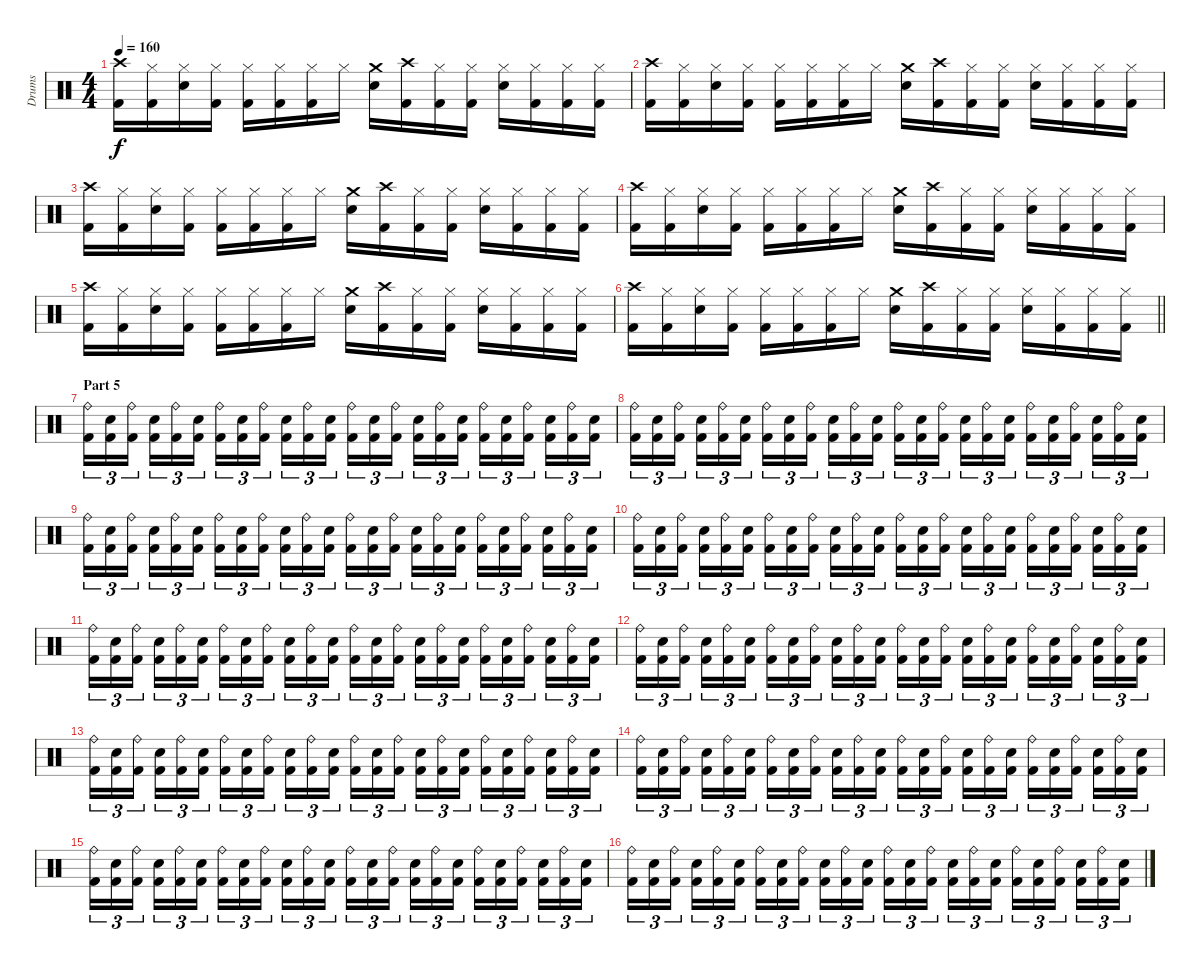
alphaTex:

\track ("Drums" "Drums") {instrument percussion}
\staff {score}
\articulation defaults
\ts (4 4)
\tempo 160
\clef neutral
\ks c
("Crash high (hit)" "Kick (hit) 2").16{dy f} ("Hi-Hat (closed)" "Kick (hit) 2").16 ("Hi-Hat (closed)" "Electric Snare (hit)").16 ("Hi-Hat (closed)" "Kick (hit) 2").16 ("Hi-Hat (closed)" "Kick (hit) 2").16 ("Hi-Hat (closed)" "Kick (hit) 2").16 ("Hi-Hat (closed)" "Kick (hit) 2").16 "Hi-Hat (closed)".16 ("Crash medium (hit)" "Electric Snare (hit)").16 ("Crash high (hit)" "Kick (hit) 2").16 ("Hi-Hat (closed)" "Kick (hit) 2").16 ("Hi-Hat (closed)" "Kick (hit) 2").16 ("Hi-Hat (closed)" "Electric Snare (hit)").16 ("Hi-Hat (closed)" "Kick (hit) 2").16 ("Hi-Hat (closed)" "Kick (hit) 2").16 ("Hi-Hat (closed)" "Kick (hit) 2").16 |
("Crash high (hit)" "Kick (hit) 2").16 ("Hi-Hat (closed)" "Kick (hit) 2").16 ("Hi-Hat (closed)" "Electric Snare (hit)").16 ("Hi-Hat (closed)" "Kick (hit) 2").16 ("Hi-Hat (closed)" "Kick (hit) 2").16 ("Hi-Hat (closed)" "Kick (hit) 2").16 ("Hi-Hat (closed)" "Kick (hit) 2").16 "Hi-Hat (closed)".16 ("Crash medium (hit)" "Electric Snare (hit)").16 ("Crash high (hit)" "Kick (hit) 2").16 ("Hi-Hat (closed)" "Kick (hit) 2").16 ("Hi-Hat (closed)" "Kick (hit) 2").16 ("Hi-Hat (closed)" "Electric Snare (hit)").16 ("Hi-Hat (closed)" "Kick (hit) 2").16 ("Hi-Hat (closed)" "Kick (hit) 2").16 ("Hi-Hat (closed)" "Kick (hit) 2").16 |
("Crash high (hit)" "Kick (hit) 2").16 ("Hi-Hat (closed)" "Kick (hit) 2").16 ("Hi-Hat (closed)" "Electric Snare (hit)").16 ("Hi-Hat (closed)" "Kick (hit) 2").16 ("Hi-Hat (closed)" "Kick (hit) 2").16 ("Hi-Hat (closed)" "Kick (hit) 2").16 ("Hi-Hat (closed)" "Kick (hit) 2").16 "Hi-Hat (closed)".16 ("Crash medium (hit)" "Electric Snare (hit)").16 ("Crash high (hit)" "Kick (hit) 2").16 ("Hi-Hat (closed)" "Kick (hit) 2").16 ("Hi-Hat (closed)" "Kick (hit) 2").16 ("Hi-Hat (closed)" "Electric Snare (hit)").16 ("Hi-Hat (closed)" "Kick (hit) 2").16 ("Hi-Hat (closed)" "Kick (hit) 2").16 ("Hi-Hat (closed)" "Kick (hit) 2").16 |
("Crash high (hit)" "Kick (hit) 2").16 ("Hi-Hat (closed)" "Kick (hit) 2").16 ("Hi-Hat (closed)" "Electric Snare (hit)").16 ("Hi-Hat (closed)" "Kick (hit) 2").16 ("Hi-Hat (closed)" "Kick (hit) 2").16 ("Hi-Hat (closed)" "Kick (hit) 2").16 ("Hi-Hat (closed)" "Kick (hit) 2").16 "Hi-Hat (closed)".16 ("Crash medium (hit)" "Electric Snare (hit)").16 ("Crash high (hit)" "Kick (hit) 2").16 ("Hi-Hat (closed)" "Kick (hit) 2").16 ("Hi-Hat (closed)" "Kick (hit) 2").16 ("Hi-Hat (closed)" "Electric Snare (hit)").16 ("Hi-Hat (closed)" "Kick (hit) 2").16 ("Hi-Hat (closed)" "Kick (hit) 2").16 ("Hi-Hat (closed)" "Kick (hit) 2").16 |
("Crash high (hit)" "Kick (hit) 2").16 ("Hi-Hat (closed)" "Kick (hit) 2").16 ("Hi-Hat (closed)" "Electric Snare (hit)").16 ("Hi-Hat (closed)" "Kick (hit) 2").16 ("Hi-Hat (closed)" "Kick (hit) 2").16 ("Hi-Hat (closed)" "Kick (hit) 2").16 ("Hi-Hat (closed)" "Kick (hit) 2").16 "Hi-Hat (closed)".16 ("Crash medium (hit)" "Electric Snare (hit)").16 ("Crash high (hit)" "Kick (hit) 2").16 ("Hi-Hat (closed)" "Kick (hit) 2").16 ("Hi-Hat (closed)" "Kick (hit) 2").16 ("Hi-Hat (closed)" "Electric Snare (hit)").16 ("Hi-Hat (closed)" "Kick (hit) 2").16 ("Hi-Hat (closed)" "Kick (hit) 2").16 ("Hi-Hat (closed)" "Kick (hit) 2").16 |
\barLineRight lightlight
("Crash high (hit)" "Kick (hit) 2").16 ("Hi-Hat (closed)" "Kick (hit) 2").16 ("Hi-Hat (closed)" "Electric Snare (hit)").16 ("Hi-Hat (closed)" "Kick (hit) 2").16 ("Hi-Hat (closed)" "Kick (hit) 2").16 ("Hi-Hat (closed)" "Kick (hit) 2").16 ("Hi-Hat (closed)" "Kick (hit) 2").16 "Hi-Hat (closed)".16 ("Crash medium (hit)" "Electric Snare (hit)").16 ("Crash high (hit)" "Kick (hit) 2").16 ("Hi-Hat (closed)" "Kick (hit) 2").16 ("Hi-Hat (closed)" "Kick (hit) 2").16 ("Hi-Hat (closed)" "Electric Snare (hit)").16 ("Hi-Hat (closed)" "Kick (hit) 2").16 ("Hi-Hat (closed)" "Kick (hit) 2").16 ("Hi-Hat (closed)" "Kick (hit) 2").16 |
\section ("" "Part 5")
("Ride (bell)" "Kick (hit) 2").16{tu (3 2)} ("Electric Snare (hit)" "Kick (hit) 2").16{tu (3 2)} ("Ride (bell)" "Kick (hit) 2").16{tu (3 2) beam splitsecondary} ("Electric Snare (hit)" "Kick (hit) 2").16{tu (3 2)} ("Ride (bell)" "Kick (hit) 2").16{tu (3 2)} ("Electric Snare (hit)" "Kick (hit) 2").16{tu (3 2)} ("Ride (bell)" "Kick (hit) 2").16{tu (3 2)} ("Electric Snare (hit)" "Kick (hit) 2").16{tu (3 2)} ("Ride (bell)" "Kick (hit) 2").16{tu (3 2) beam splitsecondary} ("Electric Snare (hit)" "Kick (hit) 2").16{tu (3 2)} ("Ride (bell)" "Kick (hit) 2").16{tu (3 2)} ("Electric Snare (hit)" "Kick (hit) 2").16{tu (3 2)} ("Ride (bell)" "Kick (hit) 2").16{tu (3 2)} ("Electric Snare (hit)" "Kick (hit) 2").16{tu (3 2)} ("Ride (bell)" "Kick (hit) 2").16{tu (3 2) beam splitsecondary} ("Electric Snare (hit)" "Kick (hit) 2").16{tu (3 2)} ("Ride (bell)" "Kick (hit) 2").16{tu (3 2)} ("Electric Snare (hit)" "Kick (hit) 2").16{tu (3 2)} ("Ride (bell)" "Kick (hit) 2").16{tu (3 2)} ("Electric Snare (hit)" "Kick (hit) 2").16{tu (3 2)} ("Ride (bell)" "Kick (hit) 2").16{tu (3 2) beam splitsecondary} ("Electric Snare (hit)" "Kick (hit) 2").16{tu (3 2)} ("Ride (bell)" "Kick (hit) 2").16{tu (3 2)} ("Electric Snare (hit)" "Kick (hit) 2").16{tu (3 2)} |
("Ride (bell)" "Kick (hit) 2").16{tu (3 2)} ("Electric Snare (hit)" "Kick (hit) 2").16{tu (3 2)} ("Ride (bell)" "Kick (hit) 2").16{tu (3 2) beam splitsecondary} ("Electric Snare (hit)" "Kick (hit) 2").16{tu (3 2)} ("Ride (bell)" "Kick (hit) 2").16{tu (3 2)} ("Electric Snare (hit)" "Kick (hit) 2").16{tu (3 2)} ("Ride (bell)" "Kick (hit) 2").16{tu (3 2)} ("Electric Snare (hit)" "Kick (hit) 2").16{tu (3 2)} ("Ride (bell)" "Kick (hit) 2").16{tu (3 2) beam splitsecondary} ("Electric Snare (hit)" "Kick (hit) 2").16{tu (3 2)} ("Ride (bell)" "Kick (hit) 2").16{tu (3 2)} ("Electric Snare (hit)" "Kick (hit) 2").16{tu (3 2)} ("Ride (bell)" "Kick (hit) 2").16{tu (3 2)} ("Electric Snare (hit)" "Kick (hit) 2").16{tu (3 2)} ("Ride (bell)" "Kick (hit) 2").16{tu (3 2) beam splitsecondary} ("Electric Snare (hit)" "Kick (hit) 2").16{tu (3 2)} ("Ride (bell)" "Kick (hit) 2").16{tu (3 2)} ("Electric Snare (hit)" "Kick (hit) 2").16{tu (3 2)} ("Ride (bell)" "Kick (hit) 2").16{tu (3 2)} ("Electric Snare (hit)" "Kick (hit) 2").16{tu (3 2)} ("Ride (bell)" "Kick (hit) 2").16{tu (3 2) beam splitsecondary} ("Electric Snare (hit)" "Kick (hit) 2").16{tu (3 2)} ("Ride (bell)" "Kick (hit) 2").16{tu (3 2)} ("Electric Snare (hit)" "Kick (hit) 2").16{tu (3 2)} |
("Ride (bell)" "Kick (hit) 2").16{tu (3 2)} ("Electric Snare (hit)" "Kick (hit) 2").16{tu (3 2)} ("Ride (bell)" "Kick (hit) 2").16{tu (3 2) beam splitsecondary} ("Electric Snare (hit)" "Kick (hit) 2").16{tu (3 2)} ("Ride (bell)" "Kick (hit) 2").16{tu (3 2)} ("Electric Snare (hit)" "Kick (hit) 2").16{tu (3 2)} ("Ride (bell)" "Kick (hit) 2").16{tu (3 2)} ("Electric Snare (hit)" "Kick (hit) 2").16{tu (3 2)} ("Ride (bell)" "Kick (hit) 2").16{tu (3 2) beam splitsecondary} ("Electric Snare (hit)" "Kick (hit) 2").16{tu (3 2)} ("Ride (bell)" "Kick (hit) 2").16{tu (3 2)} ("Electric Snare (hit)" "Kick (hit) 2").16{tu (3 2)} ("Ride (bell)" "Kick (hit) 2").16{tu (3 2)} ("Electric Snare (hit)" "Kick (hit) 2").16{tu (3 2)} ("Ride (bell)" "Kick (hit) 2").16{tu (3 2) beam splitsecondary} ("Electric Snare (hit)" "Kick (hit) 2").16{tu (3 2)} ("Ride (bell)" "Kick (hit) 2").16{tu (3 2)} ("Electric Snare (hit)" "Kick (hit) 2").16{tu (3 2)} ("Ride (bell)" "Kick (hit) 2").16{tu (3 2)} ("Electric Snare (hit)" "Kick (hit) 2").16{tu (3 2)} ("Ride (bell)" "Kick (hit) 2").16{tu (3 2) beam splitsecondary} ("Electric Snare (hit)" "Kick (hit) 2").16{tu (3 2)} ("Ride (bell)" "Kick (hit) 2").16{tu (3 2)} ("Electric Snare (hit)" "Kick (hit) 2").16{tu (3 2)} |
("Ride (bell)" "Kick (hit) 2").16{tu (3 2)} ("Electric Snare (hit)" "Kick (hit) 2").16{tu (3 2)} ("Ride (bell)" "Kick (hit) 2").16{tu (3 2) beam splitsecondary} ("Electric Snare (hit)" "Kick (hit) 2").16{tu (3 2)} ("Ride (bell)" "Kick (hit) 2").16{tu (3 2)} ("Electric Snare (hit)" "Kick (hit) 2").16{tu (3 2)} ("Ride (bell)" "Kick (hit) 2").16{tu (3 2)} ("Electric Snare (hit)" "Kick (hit) 2").16{tu (3 2)} ("Ride (bell)" "Kick (hit) 2").16{tu (3 2) beam splitsecondary} ("Electric Snare (hit)" "Kick (hit) 2").16{tu (3 2)} ("Ride (bell)" "Kick (hit) 2").16{tu (3 2)} ("Electric Snare (hit)" "Kick (hit) 2").16{tu (3 2)} ("Ride (bell)" "Kick (hit) 2").16{tu (3 2)} ("Electric Snare (hit)" "Kick (hit) 2").16{tu (3 2)} ("Ride (bell)" "Kick (hit) 2").16{tu (3 2) beam splitsecondary} ("Electric Snare (hit)" "Kick (hit) 2").16{tu (3 2)} ("Ride (bell)" "Kick (hit) 2").16{tu (3 2)} ("Electric Snare (hit)" "Kick (hit) 2").16{tu (3 2)} ("Ride (bell)" "Kick (hit) 2").16{tu (3 2)} ("Electric Snare (hit)" "Kick (hit) 2").16{tu (3 2)} ("Ride (bell)" "Kick (hit) 2").16{tu (3 2) beam splitsecondary} ("Electric Snare (hit)" "Kick (hit) 2").16{tu (3 2)} ("Ride (bell)" "Kick (hit) 2").16{tu (3 2)} ("Electric Snare (hit)" "Kick (hit) 2").16{tu (3 2)} |
("Ride (bell)" "Kick (hit) 2").16{tu (3 2)} ("Electric Snare (hit)" "Kick (hit) 2").16{tu (3 2)} ("Ride (bell)" "Kick (hit) 2").16{tu (3 2) beam splitsecondary} ("Electric Snare (hit)" "Kick (hit) 2").16{tu (3 2)} ("Ride (bell)" "Kick (hit) 2").16{tu (3 2)} ("Electric Snare (hit)" "Kick (hit) 2").16{tu (3 2)} ("Ride (bell)" "Kick (hit) 2").16{tu (3 2)} ("Electric Snare (hit)" "Kick (hit) 2").16{tu (3 2)} ("Ride (bell)" "Kick (hit) 2").16{tu (3 2) beam splitsecondary} ("Electric Snare (hit)" "Kick (hit) 2").16{tu (3 2)} ("Ride (bell)" "Kick (hit) 2").16{tu (3 2)} ("Electric Snare (hit)" "Kick (hit) 2").16{tu (3 2)} ("Ride (bell)" "Kick (hit) 2").16{tu (3 2)} ("Electric Snare (hit)" "Kick (hit) 2").16{tu (3 2)} ("Ride (bell)" "Kick (hit) 2").16{tu (3 2) beam splitsecondary} ("Electric Snare (hit)" "Kick (hit) 2").16{tu (3 2)} ("Ride (bell)" "Kick (hit) 2").16{tu (3 2)} ("Electric Snare (hit)" "Kick (hit) 2").16{tu (3 2)} ("Ride (bell)" "Kick (hit) 2").16{tu (3 2)} ("Electric Snare (hit)" "Kick (hit) 2").16{tu (3 2)} ("Ride (bell)" "Kick (hit) 2").16{tu (3 2) beam splitsecondary} ("Electric Snare (hit)" "Kick (hit) 2").16{tu (3 2)} ("Ride (bell)" "Kick (hit) 2").16{tu (3 2)} ("Electric Snare (hit)" "Kick (hit) 2").16{tu (3 2)} |
("Ride (bell)" "Kick (hit) 2").16{tu (3 2)} ("Electric Snare (hit)" "Kick (hit) 2").16{tu (3 2)} ("Ride (bell)" "Kick (hit) 2").16{tu (3 2) beam splitsecondary} ("Electric Snare (hit)" "Kick (hit) 2").16{tu (3 2)} ("Ride (bell)" "Kick (hit) 2").16{tu (3 2)} ("Electric Snare (hit)" "Kick (hit) 2").16{tu (3 2)} ("Ride (bell)" "Kick (hit) 2").16{tu (3 2)} ("Electric Snare (hit)" "Kick (hit) 2").16{tu (3 2)} ("Ride (bell)" "Kick (hit) 2").16{tu (3 2) beam splitsecondary} ("Electric Snare (hit)" "Kick (hit) 2").16{tu (3 2)} ("Ride (bell)" "Kick (hit) 2").16{tu (3 2)} ("Electric Snare (hit)" "Kick (hit) 2").16{tu (3 2)} ("Ride (bell)" "Kick (hit) 2").16{tu (3 2)} ("Electric Snare (hit)" "Kick (hit) 2").16{tu (3 2)} ("Ride (bell)" "Kick (hit) 2").16{tu (3 2) beam splitsecondary} ("Electric Snare (hit)" "Kick (hit) 2").16{tu (3 2)} ("Ride (bell)" "Kick (hit) 2").16{tu (3 2)} ("Electric Snare (hit)" "Kick (hit) 2").16{tu (3 2)} ("Ride (bell)" "Kick (hit) 2").16{tu (3 2)} ("Electric Snare (hit)" "Kick (hit) 2").16{tu (3 2)} ("Ride (bell)" "Kick (hit) 2").16{tu (3 2) beam splitsecondary} ("Electric Snare (hit)" "Kick (hit) 2").16{tu (3 2)} ("Ride (bell)" "Kick (hit) 2").16{tu (3 2)} ("Electric Snare (hit)" "Kick (hit) 2").16{tu (3 2)} |
("Ride (bell)" "Kick (hit) 2").16{tu (3 2)} ("Electric Snare (hit)" "Kick (hit) 2").16{tu (3 2)} ("Ride (bell)" "Kick (hit) 2").16{tu (3 2) beam splitsecondary} ("Electric Snare (hit)" "Kick (hit) 2").16{tu (3 2)} ("Ride (bell)" "Kick (hit) 2").16{tu (3 2)} ("Electric Snare (hit)" "Kick (hit) 2").16{tu (3 2)} ("Ride (bell)" "Kick (hit) 2").16{tu (3 2)} ("Electric Snare (hit)" "Kick (hit) 2").16{tu (3 2)} ("Ride (bell)" "Kick (hit) 2").16{tu (3 2) beam splitsecondary} ("Electric Snare (hit)" "Kick (hit) 2").16{tu (3 2)} ("Ride (bell)" "Kick (hit) 2").16{tu (3 2)} ("Electric Snare (hit)" "Kick (hit) 2").16{tu (3 2)} ("Ride (bell)" "Kick (hit) 2").16{tu (3 2)} ("Electric Snare (hit)" "Kick (hit) 2").16{tu (3 2)} ("Ride (bell)" "Kick (hit) 2").16{tu (3 2) beam splitsecondary} ("Electric Snare (hit)" "Kick (hit) 2").16{tu (3 2)} ("Ride (bell)" "Kick (hit) 2").16{tu (3 2)} ("Electric Snare (hit)" "Kick (hit) 2").16{tu (3 2)} ("Ride (bell)" "Kick (hit) 2").16{tu (3 2)} ("Electric Snare (hit)" "Kick (hit) 2").16{tu (3 2)} ("Ride (bell)" "Kick (hit) 2").16{tu (3 2) beam splitsecondary} ("Electric Snare (hit)" "Kick (hit) 2").16{tu (3 2)} ("Ride (bell)" "Kick (hit) 2").16{tu (3 2)} ("Electric Snare (hit)" "Kick (hit) 2").16{tu (3 2)} |
("Ride (bell)" "Kick (hit) 2").16{tu (3 2)} ("Electric Snare (hit)" "Kick (hit) 2").16{tu (3 2)} ("Ride (bell)" "Kick (hit) 2").16{tu (3 2) beam splitsecondary} ("Electric Snare (hit)" "Kick (hit) 2").16{tu (3 2)} ("Ride (bell)" "Kick (hit) 2").16{tu (3 2)} ("Electric Snare (hit)" "Kick (hit) 2").16{tu (3 2)} ("Ride (bell)" "Kick (hit) 2").16{tu (3 2)} ("Electric Snare (hit)" "Kick (hit) 2").16{tu (3 2)} ("Ride (bell)" "Kick (hit) 2").16{tu (3 2) beam splitsecondary} ("Electric Snare (hit)" "Kick (hit) 2").16{tu (3 2)} ("Ride (bell)" "Kick (hit) 2").16{tu (3 2)} ("Electric Snare (hit)" "Kick (hit) 2").16{tu (3 2)} ("Ride (bell)" "Kick (hit) 2").16{tu (3 2)} ("Electric Snare (hit)" "Kick (hit) 2").16{tu (3 2)} ("Ride (bell)" "Kick (hit) 2").16{tu (3 2) beam splitsecondary} ("Electric Snare (hit)" "Kick (hit) 2").16{tu (3 2)} ("Ride (bell)" "Kick (hit) 2").16{tu (3 2)} ("Electric Snare (hit)" "Kick (hit) 2").16{tu (3 2)} ("Ride (bell)" "Kick (hit) 2").16{tu (3 2)} ("Electric Snare (hit)" "Kick (hit) 2").16{tu (3 2)} ("Ride (bell)" "Kick (hit) 2").16{tu (3 2) beam splitsecondary} ("Electric Snare (hit)" "Kick (hit) 2").16{tu (3 2)} ("Ride (bell)" "Kick (hit) 2").16{tu (3 2)} ("Electric Snare (hit)" "Kick (hit) 2").16{tu (3 2)} |
("Ride (bell)" "Kick (hit) 2").16{tu (3 2)} ("Electric Snare (hit)" "Kick (hit) 2").16{tu (3 2)} ("Ride (bell)" "Kick (hit) 2").16{tu (3 2) beam splitsecondary} ("Electric Snare (hit)" "Kick (hit) 2").16{tu (3 2)} ("Ride (bell)" "Kick (hit) 2").16{tu (3 2)} ("Electric Snare (hit)" "Kick (hit) 2").16{tu (3 2)} ("Ride (bell)" "Kick (hit) 2").16{tu (3 2)} ("Electric Snare (hit)" "Kick (hit) 2").16{tu (3 2)} ("Ride (bell)" "Kick (hit) 2").16{tu (3 2) beam splitsecondary} ("Electric Snare (hit)" "Kick (hit) 2").16{tu (3 2)} ("Ride (bell)" "Kick (hit) 2").16{tu (3 2)} ("Electric Snare (hit)" "Kick (hit) 2").16{tu (3 2)} ("Ride (bell)" "Kick (hit) 2").16{tu (3 2)} ("Electric Snare (hit)" "Kick (hit) 2").16{tu (3 2)} ("Ride (bell)" "Kick (hit) 2").16{tu (3 2) beam splitsecondary} ("Electric Snare (hit)" "Kick (hit) 2").16{tu (3 2)} ("Ride (bell)" "Kick (hit) 2").16{tu (3 2)} ("Electric Snare (hit)" "Kick (hit) 2").16{tu (3 2)} ("Ride (bell)" "Kick (hit) 2").16{tu (3 2)} ("Electric Snare (hit)" "Kick (hit) 2").16{tu (3 2)} ("Ride (bell)" "Kick (hit) 2").16{tu (3 2) beam splitsecondary} ("Electric Snare (hit)" "Kick (hit) 2").16{tu (3 2)} ("Ride (bell)" "Kick (hit) 2").16{tu (3 2)} ("Electric Snare (hit)" "Kick (hit) 2").16{tu (3 2)} |
("Ride (bell)" "Kick (hit) 2").16{tu (3 2)} ("Electric Snare (hit)" "Kick (hit) 2").16{tu (3 2)} ("Ride (bell)" "Kick (hit) 2").16{tu (3 2) beam splitsecondary} ("Electric Snare (hit)" "Kick (hit) 2").16{tu (3 2)} ("Ride (bell)" "Kick (hit) 2").16{tu (3 2)} ("Electric Snare (hit)" "Kick (hit) 2").16{tu (3 2)} ("Ride (bell)" "Kick (hit) 2").16{tu (3 2)} ("Electric Snare (hit)" "Kick (hit) 2").16{tu (3 2)} ("Ride (bell)" "Kick (hit) 2").16{tu (3 2) beam splitsecondary} ("Electric Snare (hit)" "Kick (hit) 2").16{tu (3 2)} ("Ride (bell)" "Kick (hit) 2").16{tu (3 2)} ("Electric Snare (hit)" "Kick (hit) 2").16{tu (3 2)} ("Ride (bell)" "Kick (hit) 2").16{tu (3 2)} ("Electric Snare (hit)" "Kick (hit) 2").16{tu (3 2)} ("Ride (bell)" "Kick (hit) 2").16{tu (3 2) beam splitsecondary} ("Electric Snare (hit)" "Kick (hit) 2").16{tu (3 2)} ("Ride (bell)" "Kick (hit) 2").16{tu (3 2)} ("Electric Snare (hit)" "Kick (hit) 2").16{tu (3 2)} ("Ride (bell)" "Kick (hit) 2").16{tu (3 2)} ("Electric Snare (hit)" "Kick (hit) 2").16{tu (3 2)} ("Ride (bell)" "Kick (hit) 2").16{tu (3 2) beam splitsecondary} ("Electric Snare (hit)" "Kick (hit) 2").16{tu (3 2)} ("Ride (bell)" "Kick (hit) 2").16{tu (3 2)} ("Electric Snare (hit)" "Kick (hit) 2").16{tu (3 2)}
